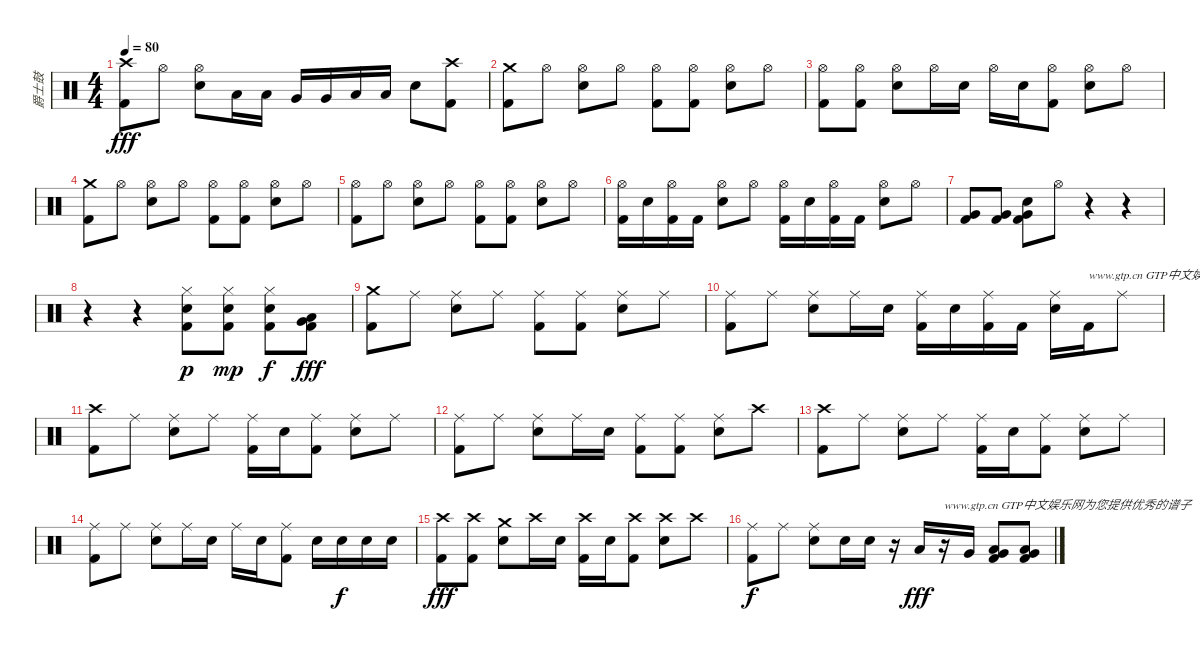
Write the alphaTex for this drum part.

\track ("爵士鼓" "爵士鼓") {instrument percussion}
\staff {score}
\articulation defaults
\ts (4 4)
\tempo 80
\clef neutral
\ks c
("Crash high (hit)" "Kick (hit) 2").8{dy fff} "Hi-Hat (open)".8 ("Hi-Hat (open)" "Electric Snare (hit)").8 "Low Tom (hit)".16 "Low Tom (hit)".16 "Very Low Tom (hit)".16 "Very Low Tom (hit)".16 "Low Floor Tom (hit)".16 "Low Floor Tom (hit)".16 "Electric Snare (hit)".8 ("Crash high (hit)" "Kick (hit) 2").8 |
("Crash medium (hit)" "Kick (hit) 2").8 "Hi-Hat (open)".8 ("Hi-Hat (open)" "Electric Snare (hit)").8 "Hi-Hat (open)".8 ("Hi-Hat (open)" "Kick (hit) 2").8 ("Hi-Hat (open)" "Kick (hit) 2").8 ("Hi-Hat (open)" "Electric Snare (hit)").8 "Hi-Hat (open)".8 |
("Hi-Hat (open)" "Kick (hit) 2").8 ("Hi-Hat (open)" "Kick (hit) 2").8 ("Hi-Hat (open)" "Electric Snare (hit)").8 "Hi-Hat (open)".16 "Electric Snare (hit)".16 "Hi-Hat (open)".16 "Electric Snare (hit)".16 ("Hi-Hat (open)" "Kick (hit) 2").8 ("Hi-Hat (open)" "Electric Snare (hit)").8 "Hi-Hat (open)".8 |
("Crash medium (hit)" "Kick (hit) 2").8 "Hi-Hat (open)".8 ("Hi-Hat (open)" "Electric Snare (hit)").8 "Hi-Hat (open)".8 ("Hi-Hat (open)" "Kick (hit) 2").8 ("Hi-Hat (open)" "Kick (hit) 2").8 ("Hi-Hat (open)" "Electric Snare (hit)").8 "Hi-Hat (open)".8 |
("Hi-Hat (open)" "Kick (hit) 2").8 "Hi-Hat (open)".8 ("Hi-Hat (open)" "Electric Snare (hit)").8 "Hi-Hat (open)".8 ("Hi-Hat (open)" "Kick (hit) 2").8 ("Hi-Hat (open)" "Kick (hit) 2").8 ("Hi-Hat (open)" "Electric Snare (hit)").8 "Hi-Hat (open)".8 |
("Hi-Hat (open)" "Kick (hit) 2").16 "Electric Snare (hit)".16 ("Hi-Hat (open)" "Kick (hit) 2").16 "Kick (hit) 2".16 ("Hi-Hat (open)" "Electric Snare (hit)").8 "Hi-Hat (open)".8 ("Hi-Hat (open)" "Kick (hit) 2").16 "Electric Snare (hit)".16 ("Hi-Hat (open)" "Kick (hit) 2").16 "Kick (hit) 2".16 ("Hi-Hat (open)" "Electric Snare (hit)").8 "Hi-Hat (open)".8 |
("Very Low Tom (hit)" "Kick (hit) 2").8 ("Very Low Tom (hit)" "Kick (hit) 2").8 ("Electric Snare (hit)" "Very Low Tom (hit)" "Kick (hit) 2").8 "Hi-Hat (open)".8 r.4 r.4 |
r.4 r.4 ("Hi-Hat (closed)" "Electric Snare (hit)" "Kick (hit) 2").8{dy p} ("Hi-Hat (closed)" "Electric Snare (hit)" "Kick (hit) 2").8{dy mp} ("Hi-Hat (closed)" "Electric Snare (hit)" "Kick (hit) 2").8{dy f} ("Low Tom (hit)" "Very Low Tom (hit)" "Kick (hit) 2").8{dy fff} |
("Crash medium (hit)" "Kick (hit) 2").8 "Ride (middle)".8 ("Ride (middle)" "Electric Snare (hit)").8 "Ride (middle)".8 ("Ride (middle)" "Kick (hit) 2").8 ("Ride (middle)" "Kick (hit) 2").8 ("Ride (middle)" "Electric Snare (hit)").8 "Ride (middle)".8 |
("Ride (middle)" "Kick (hit) 2").8 "Ride (middle)".8 ("Ride (middle)" "Electric Snare (hit)").8 "Ride (middle)".16 "Electric Snare (hit)".16 ("Ride (middle)" "Kick (hit) 2").16 "Electric Snare (hit)".16 ("Ride (middle)" "Kick (hit) 2").16 "Kick (hit) 2".16 ("Ride (middle)" "Electric Snare (hit)").16 "Kick (hit) 2".16{txt "www.gtp.cn GTP中文娱乐网为您提供优秀的谱子"} "Ride (middle)".8 |
("Crash high (hit)" "Kick (hit) 2").8 "Ride (middle)".8 ("Ride (middle)" "Electric Snare (hit)").8 "Ride (middle)".8 ("Ride (middle)" "Kick (hit) 2").16 "Electric Snare (hit)".16 ("Ride (middle)" "Kick (hit) 2").8 ("Ride (middle)" "Electric Snare (hit)").8 "Ride (middle)".8 |
("Ride (middle)" "Kick (hit) 2").8 "Ride (middle)".8 ("Ride (middle)" "Electric Snare (hit)").8 "Ride (middle)".16 "Electric Snare (hit)".16 ("Ride (middle)" "Kick (hit) 2").8 ("Ride (middle)" "Kick (hit) 2").8 ("Ride (middle)" "Electric Snare (hit)").8 "Crash high (hit)".8 |
("Crash high (hit)" "Kick (hit) 2").8 "Ride (middle)".8 ("Ride (middle)" "Electric Snare (hit)").8 "Ride (middle)".8 ("Ride (middle)" "Kick (hit) 2").16 "Electric Snare (hit)".16 ("Ride (middle)" "Kick (hit) 2").8 ("Ride (middle)" "Electric Snare (hit)").8 "Ride (middle)".8 |
("Ride (middle)" "Kick (hit) 2").8 "Ride (middle)".8 ("Ride (middle)" "Electric Snare (hit)").8 "Ride (middle)".16 "Electric Snare (hit)".16 "Ride (middle)".16 "Electric Snare (hit)".16 ("Ride (middle)" "Kick (hit) 2").8 "Electric Snare (hit)".16 "Electric Snare (hit)".16{dy f} "Electric Snare (hit)".16 "Electric Snare (hit)".16 |
("Crash high (hit)" "Kick (hit) 2").8{dy fff} ("Crash high (hit)" "Kick (hit) 2").8 ("Crash medium (hit)" "Electric Snare (hit)").8 "Crash high (hit)".16 "Electric Snare (hit)".16 ("Crash high (hit)" "Kick (hit) 2").16 "Electric Snare (hit)".16 ("Crash high (hit)" "Kick (hit) 2").8 ("Crash high (hit)" "Electric Snare (hit)").8 "Crash high (hit)".8 |
("Ride (middle)" "Kick (hit) 2").8{dy f} "Ride (middle)".8 ("Ride (middle)" "Electric Snare (hit)").8 "Electric Snare (hit)".16 "Electric Snare (hit)".16 r.16 "Low Tom (hit)".16{dy fff} r.16{txt "www.gtp.cn GTP中文娱乐网为您提供优秀的谱子"} "Very Low Tom (hit)".16 ("Low Floor Tom (hit)" "Very Low Tom (hit)" "Kick (hit) 2").8 ("Low Floor Tom (hit)" "Very Low Tom (hit)" "Kick (hit) 2").8
